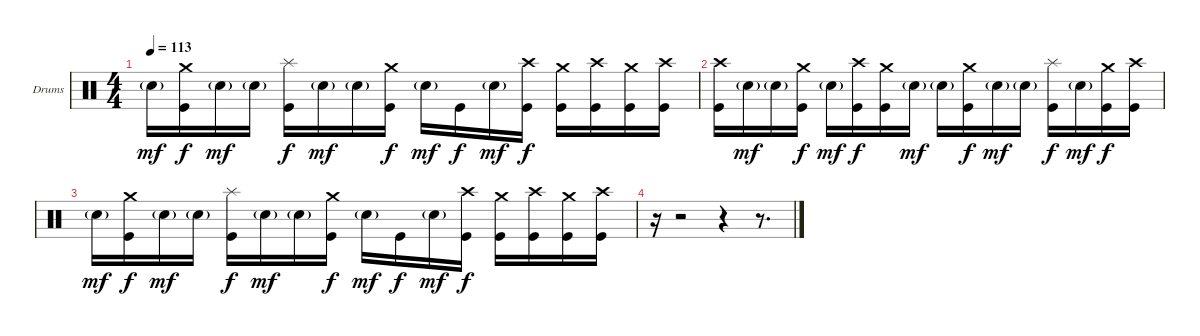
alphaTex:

\bracketExtendMode groupsimilarinstruments
\firstSystemTrackNameOrientation horizontal
\otherSystemsTrackNameOrientation horizontal
\track ("Drumkit" "Drums") {instrument percussion}
\staff {score}
\articulation defaults
\ts (4 4)
\tempo 113
\clef neutral
\ks c "Snare (hit) 2"{g}.16{dy mf}
("Crash medium (hit)" "Kick (hit)").16{dy f} "Snare (hit) 2"{g}.16{dy mf} "Snare (hit) 2"{g}.16 ("Splash (hit)" "Kick (hit)").16{dy f} "Snare (hit) 2"{g}.16{dy mf} "Snare (hit) 2"{g}.16 ("Crash medium (hit)" "Kick (hit)").16{dy f} "Snare (hit) 2"{g}.16{dy mf} "Kick (hit)".16{dy f} "Snare (hit) 2"{g}.16{dy mf} ("Crash high (hit)" "Kick (hit)").16{dy f} ("Crash medium (hit)" "Kick (hit)").16 ("Crash high (hit)" "Kick (hit)").16 ("Crash medium (hit)" "Kick (hit)").16 ("Crash high (hit)" "Kick (hit)").16 |
("Crash high (hit)" "Kick (hit)").16 "Snare (hit) 2"{g}.16{dy mf} "Snare (hit) 2"{g}.16 ("Crash medium (hit)" "Kick (hit)").16{dy f} "Snare (hit) 2"{g}.16{dy mf} ("Crash high (hit)" "Kick (hit)").16{dy f} ("Crash medium (hit)" "Kick (hit)").16 "Snare (hit) 2"{g}.16{dy mf} "Snare (hit) 2"{g}.16 ("Crash medium (hit)" "Kick (hit)").16{dy f} "Snare (hit) 2"{g}.16{dy mf} "Snare (hit) 2"{g}.16 ("Splash (hit)" "Kick (hit)").16{dy f} "Snare (hit) 2"{g}.16{dy mf} ("Crash medium (hit)" "Kick (hit)").16{dy f} ("Crash high (hit)" "Kick (hit)").16 |
"Snare (hit) 2"{g}.16{dy mf} ("Crash medium (hit)" "Kick (hit)").16{dy f} "Snare (hit) 2"{g}.16{dy mf} "Snare (hit) 2"{g}.16 ("Splash (hit)" "Kick (hit)").16{dy f} "Snare (hit) 2"{g}.16{dy mf} "Snare (hit) 2"{g}.16 ("Crash medium (hit)" "Kick (hit)").16{dy f} "Snare (hit) 2"{g}.16{dy mf} "Kick (hit)".16{dy f} "Snare (hit) 2"{g}.16{dy mf} ("Crash high (hit)" "Kick (hit)").16{dy f} ("Crash medium (hit)" "Kick (hit)").16 ("Crash high (hit)" "Kick (hit)").16 ("Crash medium (hit)" "Kick (hit)").16 ("Crash high (hit)" "Kick (hit)").16 |
r.16 r.2 r.4 r.8{d}
